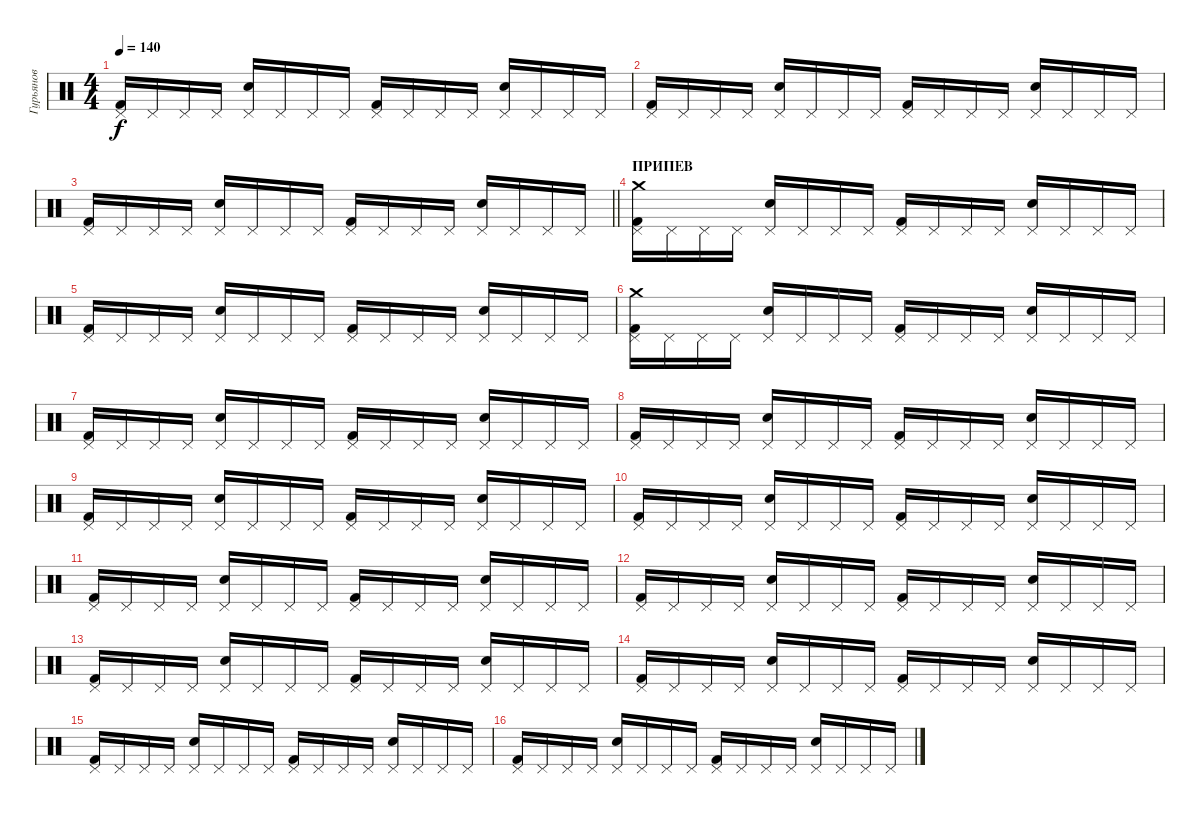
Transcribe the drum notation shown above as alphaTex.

\track ("Гурьянов" "Гурьянов") {instrument percussion}
\staff {score}
\articulation defaults
\ts (4 4)
\tempo 140
\clef neutral
\ks c
("Pedal Hi-Hat (hit)" "Kick (hit) 2").16{dy f} "Pedal Hi-Hat (hit)".16 "Pedal Hi-Hat (hit)".16 "Pedal Hi-Hat (hit)".16 ("Pedal Hi-Hat (hit)" "Electric Snare (hit)").16 "Pedal Hi-Hat (hit)".16 "Pedal Hi-Hat (hit)".16 "Pedal Hi-Hat (hit)".16 ("Pedal Hi-Hat (hit)" "Kick (hit) 2").16 "Pedal Hi-Hat (hit)".16 "Pedal Hi-Hat (hit)".16 "Pedal Hi-Hat (hit)".16 ("Pedal Hi-Hat (hit)" "Electric Snare (hit)").16 "Pedal Hi-Hat (hit)".16 "Pedal Hi-Hat (hit)".16 "Pedal Hi-Hat (hit)".16 |
("Pedal Hi-Hat (hit)" "Kick (hit) 2").16 "Pedal Hi-Hat (hit)".16 "Pedal Hi-Hat (hit)".16 "Pedal Hi-Hat (hit)".16 ("Pedal Hi-Hat (hit)" "Electric Snare (hit)").16 "Pedal Hi-Hat (hit)".16 "Pedal Hi-Hat (hit)".16 "Pedal Hi-Hat (hit)".16 ("Pedal Hi-Hat (hit)" "Kick (hit) 2").16 "Pedal Hi-Hat (hit)".16 "Pedal Hi-Hat (hit)".16 "Pedal Hi-Hat (hit)".16 ("Pedal Hi-Hat (hit)" "Electric Snare (hit)").16 "Pedal Hi-Hat (hit)".16 "Pedal Hi-Hat (hit)".16 "Pedal Hi-Hat (hit)".16 |
\barLineRight lightlight
("Pedal Hi-Hat (hit)" "Kick (hit) 2").16 "Pedal Hi-Hat (hit)".16 "Pedal Hi-Hat (hit)".16 "Pedal Hi-Hat (hit)".16 ("Pedal Hi-Hat (hit)" "Electric Snare (hit)").16 "Pedal Hi-Hat (hit)".16 "Pedal Hi-Hat (hit)".16 "Pedal Hi-Hat (hit)".16 ("Pedal Hi-Hat (hit)" "Kick (hit) 2").16 "Pedal Hi-Hat (hit)".16 "Pedal Hi-Hat (hit)".16 "Pedal Hi-Hat (hit)".16 ("Pedal Hi-Hat (hit)" "Electric Snare (hit)").16 "Pedal Hi-Hat (hit)".16 "Pedal Hi-Hat (hit)".16 "Pedal Hi-Hat (hit)".16 |
\section ("" "ПРИПЕВ")
("Pedal Hi-Hat (hit)" "Crash medium (hit)" "Kick (hit) 2").16 "Pedal Hi-Hat (hit)".16 "Pedal Hi-Hat (hit)".16 "Pedal Hi-Hat (hit)".16 ("Pedal Hi-Hat (hit)" "Electric Snare (hit)").16 "Pedal Hi-Hat (hit)".16 "Pedal Hi-Hat (hit)".16 "Pedal Hi-Hat (hit)".16 ("Pedal Hi-Hat (hit)" "Kick (hit) 2").16 "Pedal Hi-Hat (hit)".16 "Pedal Hi-Hat (hit)".16 "Pedal Hi-Hat (hit)".16 ("Pedal Hi-Hat (hit)" "Electric Snare (hit)").16 "Pedal Hi-Hat (hit)".16 "Pedal Hi-Hat (hit)".16 "Pedal Hi-Hat (hit)".16 |
("Pedal Hi-Hat (hit)" "Kick (hit) 2").16 "Pedal Hi-Hat (hit)".16 "Pedal Hi-Hat (hit)".16 "Pedal Hi-Hat (hit)".16 ("Pedal Hi-Hat (hit)" "Electric Snare (hit)").16 "Pedal Hi-Hat (hit)".16 "Pedal Hi-Hat (hit)".16 "Pedal Hi-Hat (hit)".16 ("Pedal Hi-Hat (hit)" "Kick (hit) 2").16 "Pedal Hi-Hat (hit)".16 "Pedal Hi-Hat (hit)".16 "Pedal Hi-Hat (hit)".16 ("Pedal Hi-Hat (hit)" "Electric Snare (hit)").16 "Pedal Hi-Hat (hit)".16 "Pedal Hi-Hat (hit)".16 "Pedal Hi-Hat (hit)".16 |
("Pedal Hi-Hat (hit)" "Crash medium (hit)" "Kick (hit) 2").16 "Pedal Hi-Hat (hit)".16 "Pedal Hi-Hat (hit)".16 "Pedal Hi-Hat (hit)".16 ("Pedal Hi-Hat (hit)" "Electric Snare (hit)").16 "Pedal Hi-Hat (hit)".16 "Pedal Hi-Hat (hit)".16 "Pedal Hi-Hat (hit)".16 ("Pedal Hi-Hat (hit)" "Kick (hit) 2").16 "Pedal Hi-Hat (hit)".16 "Pedal Hi-Hat (hit)".16 "Pedal Hi-Hat (hit)".16 ("Pedal Hi-Hat (hit)" "Electric Snare (hit)").16 "Pedal Hi-Hat (hit)".16 "Pedal Hi-Hat (hit)".16 "Pedal Hi-Hat (hit)".16 |
("Pedal Hi-Hat (hit)" "Kick (hit) 2").16 "Pedal Hi-Hat (hit)".16 "Pedal Hi-Hat (hit)".16 "Pedal Hi-Hat (hit)".16 ("Pedal Hi-Hat (hit)" "Electric Snare (hit)").16 "Pedal Hi-Hat (hit)".16 "Pedal Hi-Hat (hit)".16 "Pedal Hi-Hat (hit)".16 ("Pedal Hi-Hat (hit)" "Kick (hit) 2").16 "Pedal Hi-Hat (hit)".16 "Pedal Hi-Hat (hit)".16 "Pedal Hi-Hat (hit)".16 ("Pedal Hi-Hat (hit)" "Electric Snare (hit)").16 "Pedal Hi-Hat (hit)".16 "Pedal Hi-Hat (hit)".16 "Pedal Hi-Hat (hit)".16 |
("Pedal Hi-Hat (hit)" "Kick (hit) 2").16 "Pedal Hi-Hat (hit)".16 "Pedal Hi-Hat (hit)".16 "Pedal Hi-Hat (hit)".16 ("Pedal Hi-Hat (hit)" "Electric Snare (hit)").16 "Pedal Hi-Hat (hit)".16 "Pedal Hi-Hat (hit)".16 "Pedal Hi-Hat (hit)".16 ("Pedal Hi-Hat (hit)" "Kick (hit) 2").16 "Pedal Hi-Hat (hit)".16 "Pedal Hi-Hat (hit)".16 "Pedal Hi-Hat (hit)".16 ("Pedal Hi-Hat (hit)" "Electric Snare (hit)").16 "Pedal Hi-Hat (hit)".16 "Pedal Hi-Hat (hit)".16 "Pedal Hi-Hat (hit)".16 |
("Pedal Hi-Hat (hit)" "Kick (hit) 2").16 "Pedal Hi-Hat (hit)".16 "Pedal Hi-Hat (hit)".16 "Pedal Hi-Hat (hit)".16 ("Pedal Hi-Hat (hit)" "Electric Snare (hit)").16 "Pedal Hi-Hat (hit)".16 "Pedal Hi-Hat (hit)".16 "Pedal Hi-Hat (hit)".16 ("Pedal Hi-Hat (hit)" "Kick (hit) 2").16 "Pedal Hi-Hat (hit)".16 "Pedal Hi-Hat (hit)".16 "Pedal Hi-Hat (hit)".16 ("Pedal Hi-Hat (hit)" "Electric Snare (hit)").16 "Pedal Hi-Hat (hit)".16 "Pedal Hi-Hat (hit)".16 "Pedal Hi-Hat (hit)".16 |
("Pedal Hi-Hat (hit)" "Kick (hit) 2").16 "Pedal Hi-Hat (hit)".16 "Pedal Hi-Hat (hit)".16 "Pedal Hi-Hat (hit)".16 ("Pedal Hi-Hat (hit)" "Electric Snare (hit)").16 "Pedal Hi-Hat (hit)".16 "Pedal Hi-Hat (hit)".16 "Pedal Hi-Hat (hit)".16 ("Pedal Hi-Hat (hit)" "Kick (hit) 2").16 "Pedal Hi-Hat (hit)".16 "Pedal Hi-Hat (hit)".16 "Pedal Hi-Hat (hit)".16 ("Pedal Hi-Hat (hit)" "Electric Snare (hit)").16 "Pedal Hi-Hat (hit)".16 "Pedal Hi-Hat (hit)".16 "Pedal Hi-Hat (hit)".16 |
("Pedal Hi-Hat (hit)" "Kick (hit) 2").16 "Pedal Hi-Hat (hit)".16 "Pedal Hi-Hat (hit)".16 "Pedal Hi-Hat (hit)".16 ("Pedal Hi-Hat (hit)" "Electric Snare (hit)").16 "Pedal Hi-Hat (hit)".16 "Pedal Hi-Hat (hit)".16 "Pedal Hi-Hat (hit)".16 ("Pedal Hi-Hat (hit)" "Kick (hit) 2").16 "Pedal Hi-Hat (hit)".16 "Pedal Hi-Hat (hit)".16 "Pedal Hi-Hat (hit)".16 ("Pedal Hi-Hat (hit)" "Electric Snare (hit)").16 "Pedal Hi-Hat (hit)".16 "Pedal Hi-Hat (hit)".16 "Pedal Hi-Hat (hit)".16 |
("Pedal Hi-Hat (hit)" "Kick (hit) 2").16 "Pedal Hi-Hat (hit)".16 "Pedal Hi-Hat (hit)".16 "Pedal Hi-Hat (hit)".16 ("Pedal Hi-Hat (hit)" "Electric Snare (hit)").16 "Pedal Hi-Hat (hit)".16 "Pedal Hi-Hat (hit)".16 "Pedal Hi-Hat (hit)".16 ("Pedal Hi-Hat (hit)" "Kick (hit) 2").16 "Pedal Hi-Hat (hit)".16 "Pedal Hi-Hat (hit)".16 "Pedal Hi-Hat (hit)".16 ("Pedal Hi-Hat (hit)" "Electric Snare (hit)").16 "Pedal Hi-Hat (hit)".16 "Pedal Hi-Hat (hit)".16 "Pedal Hi-Hat (hit)".16 |
("Pedal Hi-Hat (hit)" "Kick (hit) 2").16 "Pedal Hi-Hat (hit)".16 "Pedal Hi-Hat (hit)".16 "Pedal Hi-Hat (hit)".16 ("Pedal Hi-Hat (hit)" "Electric Snare (hit)").16 "Pedal Hi-Hat (hit)".16 "Pedal Hi-Hat (hit)".16 "Pedal Hi-Hat (hit)".16 ("Pedal Hi-Hat (hit)" "Kick (hit) 2").16 "Pedal Hi-Hat (hit)".16 "Pedal Hi-Hat (hit)".16 "Pedal Hi-Hat (hit)".16 ("Pedal Hi-Hat (hit)" "Electric Snare (hit)").16 "Pedal Hi-Hat (hit)".16 "Pedal Hi-Hat (hit)".16 "Pedal Hi-Hat (hit)".16 |
("Pedal Hi-Hat (hit)" "Kick (hit) 2").16 "Pedal Hi-Hat (hit)".16 "Pedal Hi-Hat (hit)".16 "Pedal Hi-Hat (hit)".16 ("Pedal Hi-Hat (hit)" "Electric Snare (hit)").16 "Pedal Hi-Hat (hit)".16 "Pedal Hi-Hat (hit)".16 "Pedal Hi-Hat (hit)".16 ("Pedal Hi-Hat (hit)" "Kick (hit) 2").16 "Pedal Hi-Hat (hit)".16 "Pedal Hi-Hat (hit)".16 "Pedal Hi-Hat (hit)".16 ("Pedal Hi-Hat (hit)" "Electric Snare (hit)").16 "Pedal Hi-Hat (hit)".16 "Pedal Hi-Hat (hit)".16 "Pedal Hi-Hat (hit)".16 |
("Pedal Hi-Hat (hit)" "Kick (hit) 2").16 "Pedal Hi-Hat (hit)".16 "Pedal Hi-Hat (hit)".16 "Pedal Hi-Hat (hit)".16 ("Pedal Hi-Hat (hit)" "Electric Snare (hit)").16 "Pedal Hi-Hat (hit)".16 "Pedal Hi-Hat (hit)".16 "Pedal Hi-Hat (hit)".16 ("Pedal Hi-Hat (hit)" "Kick (hit) 2").16 "Pedal Hi-Hat (hit)".16 "Pedal Hi-Hat (hit)".16 "Pedal Hi-Hat (hit)".16 ("Pedal Hi-Hat (hit)" "Electric Snare (hit)").16 "Pedal Hi-Hat (hit)".16 "Pedal Hi-Hat (hit)".16 "Pedal Hi-Hat (hit)".16 |
("Pedal Hi-Hat (hit)" "Kick (hit) 2").16 "Pedal Hi-Hat (hit)".16 "Pedal Hi-Hat (hit)".16 "Pedal Hi-Hat (hit)".16 ("Pedal Hi-Hat (hit)" "Electric Snare (hit)").16 "Pedal Hi-Hat (hit)".16 "Pedal Hi-Hat (hit)".16 "Pedal Hi-Hat (hit)".16 ("Pedal Hi-Hat (hit)" "Kick (hit) 2").16 "Pedal Hi-Hat (hit)".16 "Pedal Hi-Hat (hit)".16 "Pedal Hi-Hat (hit)".16 ("Pedal Hi-Hat (hit)" "Electric Snare (hit)").16 "Pedal Hi-Hat (hit)".16 "Pedal Hi-Hat (hit)".16 "Pedal Hi-Hat (hit)".16
